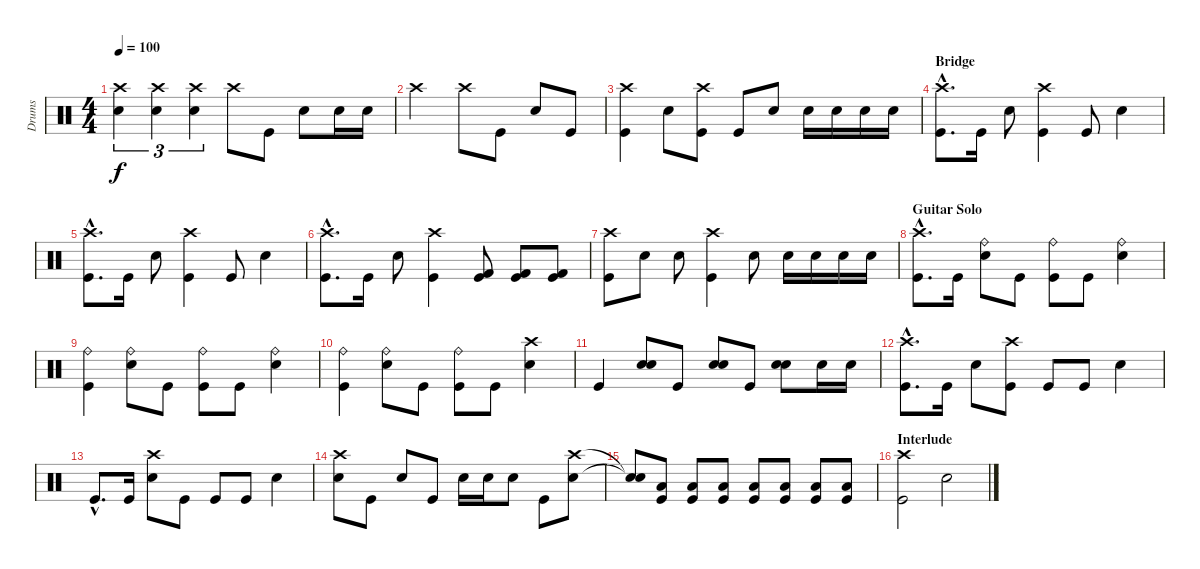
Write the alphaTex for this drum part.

\track ("Drums" "Drums") {instrument percussion}
\staff {score}
\articulation defaults
\ts (4 4)
\tempo 100
\clef neutral
\ks c
("Crash high (hit)" "Snare (hit) 2").4{tu (3 2) dy f} ("Crash high (hit)" "Snare (hit) 2").4{tu (3 2)} ("Crash high (hit)" "Snare (hit) 2").4{tu (3 2)} "Crash high (hit)".8 "Kick (hit)".8 "Snare (hit) 2".8 "Snare (hit) 2".16 "Snare (hit) 2".16 |
"Crash high (hit)".2 "Crash high (hit)".8 "Kick (hit)".8 "Snare (hit) 2".8 "Kick (hit)".8 |
("Crash high (hit)" "Kick (hit)").4 "Snare (hit) 2".8 ("Crash high (hit)" "Kick (hit)").8 "Kick (hit)".8 "Snare (hit) 2".8 "Snare (hit) 2".16 "Snare (hit) 2".16 "Snare (hit) 2".16 "Snare (hit) 2".16 |
\section ("" "Bridge")
("Crash high (hit)"{hac} "Kick (hit)"{hac}).8{d} "Kick (hit)".16 "Snare (hit) 2".8 ("Crash high (hit)" "Kick (hit)").4 "Kick (hit)".8 "Snare (hit) 2".4 |
("Crash high (hit)"{hac} "Kick (hit)"{hac}).8{d} "Kick (hit)".16 "Snare (hit) 2".8 ("Crash high (hit)" "Kick (hit)").4 "Kick (hit)".8 "Snare (hit) 2".4 |
("Crash high (hit)"{hac} "Kick (hit)"{hac}).8{d} "Kick (hit)".16 "Snare (hit) 2".8 ("Crash high (hit)" "Kick (hit)").4 ("Kick (hit) 2" "Kick (hit)").8{bd 60} ("Kick (hit) 2" "Kick (hit)").8{bd 60} ("Kick (hit) 2" "Kick (hit)").8{bd 60} |
("Crash high (hit)" "Kick (hit)").8 "Snare (hit) 2".8 "Snare (hit) 2".8 ("Crash high (hit)" "Kick (hit)").4 "Snare (hit) 2".8 "Snare (hit) 2".16 "Snare (hit) 2".16 "Snare (hit) 2".16 "Snare (hit) 2".16 |
\section ("" "Guitar Solo")
("Crash high (hit)"{hac} "Kick (hit)"{hac}).8{d} "Kick (hit)".16 ("Snare (hit) 2" "Ride (bell)").8 "Kick (hit)".8 ("Kick (hit)" "Ride (bell)").8 "Kick (hit)".8 ("Snare (hit) 2" "Ride (bell)").4 |
("Kick (hit)" "Ride (bell)").4 ("Snare (hit) 2" "Ride (bell)").8 "Kick (hit)".8 ("Kick (hit)" "Ride (bell)").8 "Kick (hit)".8 ("Snare (hit) 2" "Ride (bell)").4 |
("Kick (hit)" "Ride (bell)").4 ("Snare (hit) 2" "Ride (bell)").8 "Kick (hit)".8 ("Kick (hit)" "Ride (bell)").8 "Kick (hit)".8 ("Crash high (hit)" "Snare (hit) 2").4 |
"Kick (hit)".4 ("Snare (hit) 2" "Snare (hit) 2").8{bd 60} "Kick (hit)".8 ("Snare (hit) 2" "Snare (hit) 2").8{bd 60} "Kick (hit)".8 ("Snare (hit) 2" "Snare (hit) 2").8{bd 60} "Snare (hit) 2".16 "Snare (hit) 2".16 |
("Crash high (hit)"{hac} "Kick (hit)"{hac}).8{d} "Kick (hit)".16 "Snare (hit) 2".8 ("Crash high (hit)" "Kick (hit)").8 "Kick (hit)".8 "Kick (hit)".8 "Snare (hit) 2".4 |
"Kick (hit)"{hac}.8{d} "Kick (hit)".16 ("Crash high (hit)" "Snare (hit) 2").8 "Kick (hit)".8 "Kick (hit)".8 "Kick (hit)".8 "Snare (hit) 2".4 |
("Crash high (hit)" "Snare (hit) 2").8 "Kick (hit)".8 "Snare (hit) 2".8 "Kick (hit)".8 "Snare (hit) 2".16 "Snare (hit) 2".16 "Snare (hit) 2".8 "Kick (hit)".8 ("Crash high (hit)" "Snare (hit) 2").8 |
("Snare (hit)"{t} "Snare (hit)"{t}).8 ("Low Floor Tom (hit)" "Kick (hit)").8{bd 60} ("Low Floor Tom (hit)" "Kick (hit)").8{bd 60} ("Low Floor Tom (hit)" "Kick (hit)").8{bd 60} ("Low Floor Tom (hit)" "Kick (hit)").8{bd 60} ("Low Floor Tom (hit)" "Kick (hit)").8{bd 60} ("Low Floor Tom (hit)" "Kick (hit)").8{bd 60} ("Low Floor Tom (hit)" "Kick (hit)").8{bd 60} |
\section ("" "Interlude")
("Crash high (hit)" "Kick (hit)").2 "Snare (hit) 2".2
